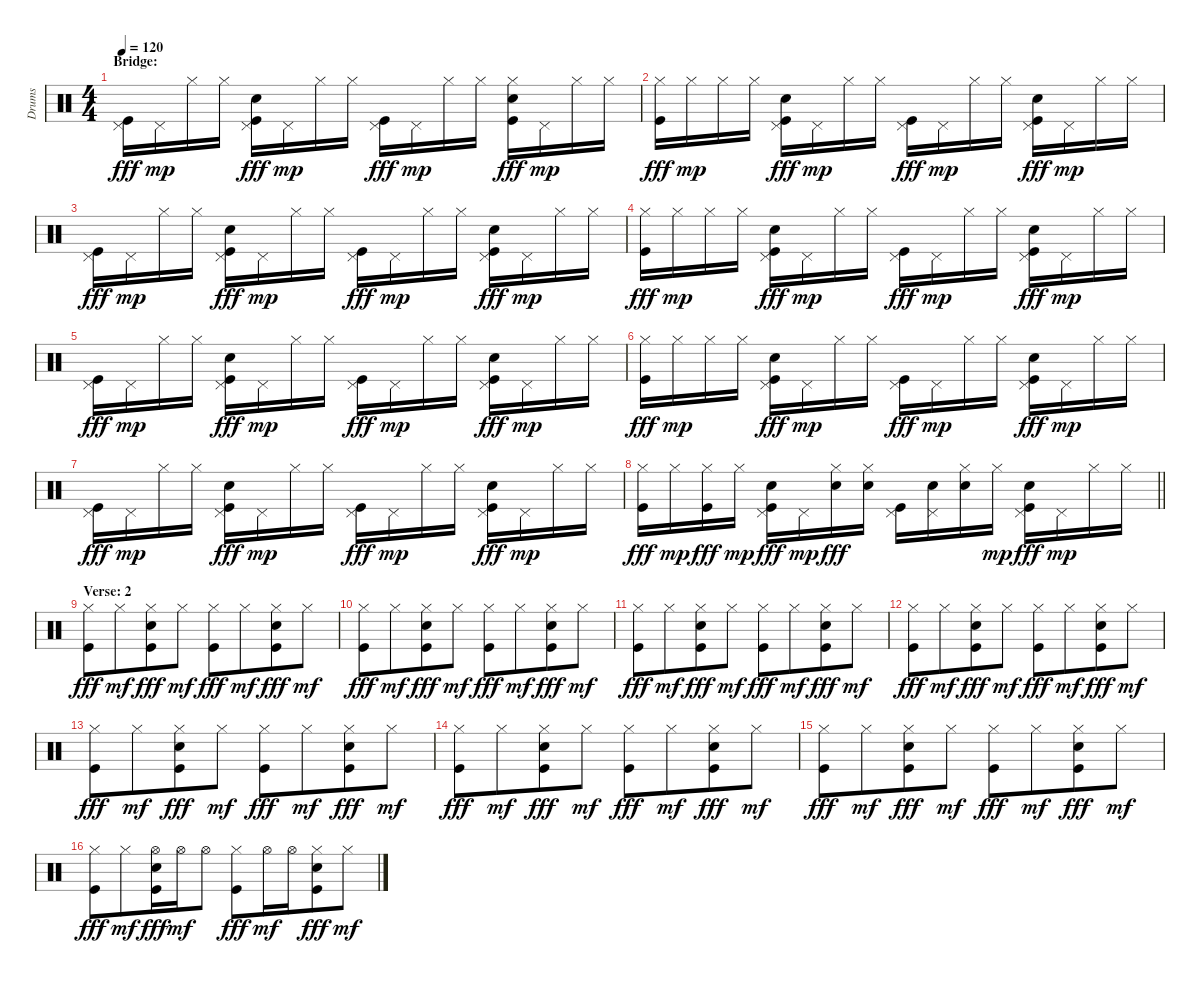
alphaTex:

\track ("Drums" "Drums") {instrument percussion}
\staff {score}
\articulation defaults
\ts (4 4)
\section ("" "Bridge:")
\tempo 120
\clef neutral
\ks c
("Pedal Hi-Hat (hit)" "Kick (hit)").16{dy fff} "Pedal Hi-Hat (hit)".16{dy mp} "Hi-Hat (closed)".16 "Hi-Hat (closed)".16 ("Pedal Hi-Hat (hit)" "Snare (hit) 2" "Kick (hit)").16{dy fff} "Pedal Hi-Hat (hit)".16{dy mp} "Hi-Hat (closed)".16 "Hi-Hat (closed)".16 ("Pedal Hi-Hat (hit)" "Kick (hit)").16{dy fff} "Pedal Hi-Hat (hit)".16{dy mp} "Hi-Hat (closed)".16 "Hi-Hat (closed)".16 ("Hi-Hat (closed)" "Snare (hit) 2" "Kick (hit)").16{dy fff} "Pedal Hi-Hat (hit)".16{dy mp} "Hi-Hat (closed)".16 "Hi-Hat (closed)".16 |
("Hi-Hat (closed)" "Kick (hit)").16{dy fff} "Hi-Hat (closed)".16{dy mp} "Hi-Hat (closed)".16 "Hi-Hat (closed)".16 ("Pedal Hi-Hat (hit)" "Snare (hit) 2" "Kick (hit)").16{dy fff} "Pedal Hi-Hat (hit)".16{dy mp} "Hi-Hat (closed)".16 "Hi-Hat (closed)".16 ("Pedal Hi-Hat (hit)" "Kick (hit)").16{dy fff} "Pedal Hi-Hat (hit)".16{dy mp} "Hi-Hat (closed)".16 "Hi-Hat (closed)".16 ("Pedal Hi-Hat (hit)" "Snare (hit) 2" "Kick (hit)").16{dy fff} "Pedal Hi-Hat (hit)".16{dy mp} "Hi-Hat (closed)".16 "Hi-Hat (closed)".16 |
("Pedal Hi-Hat (hit)" "Kick (hit)").16{dy fff} "Pedal Hi-Hat (hit)".16{dy mp} "Hi-Hat (closed)".16 "Hi-Hat (closed)".16 ("Pedal Hi-Hat (hit)" "Snare (hit) 2" "Kick (hit)").16{dy fff} "Pedal Hi-Hat (hit)".16{dy mp} "Hi-Hat (closed)".16 "Hi-Hat (closed)".16 ("Pedal Hi-Hat (hit)" "Kick (hit)").16{dy fff} "Pedal Hi-Hat (hit)".16{dy mp} "Hi-Hat (closed)".16 "Hi-Hat (closed)".16 ("Pedal Hi-Hat (hit)" "Snare (hit) 2" "Kick (hit)").16{dy fff} "Pedal Hi-Hat (hit)".16{dy mp} "Hi-Hat (closed)".16 "Hi-Hat (closed)".16 |
("Hi-Hat (closed)" "Kick (hit)").16{dy fff} "Hi-Hat (closed)".16{dy mp} "Hi-Hat (closed)".16 "Hi-Hat (closed)".16 ("Pedal Hi-Hat (hit)" "Snare (hit) 2" "Kick (hit)").16{dy fff} "Pedal Hi-Hat (hit)".16{dy mp} "Hi-Hat (closed)".16 "Hi-Hat (closed)".16 ("Pedal Hi-Hat (hit)" "Kick (hit)").16{dy fff} "Pedal Hi-Hat (hit)".16{dy mp} "Hi-Hat (closed)".16 "Hi-Hat (closed)".16 ("Pedal Hi-Hat (hit)" "Snare (hit) 2" "Kick (hit)").16{dy fff} "Pedal Hi-Hat (hit)".16{dy mp} "Hi-Hat (closed)".16 "Hi-Hat (closed)".16 |
("Pedal Hi-Hat (hit)" "Kick (hit)").16{dy fff} "Pedal Hi-Hat (hit)".16{dy mp} "Hi-Hat (closed)".16 "Hi-Hat (closed)".16 ("Pedal Hi-Hat (hit)" "Snare (hit) 2" "Kick (hit)").16{dy fff} "Pedal Hi-Hat (hit)".16{dy mp} "Hi-Hat (closed)".16 "Hi-Hat (closed)".16 ("Pedal Hi-Hat (hit)" "Kick (hit)").16{dy fff} "Pedal Hi-Hat (hit)".16{dy mp} "Hi-Hat (closed)".16 "Hi-Hat (closed)".16 ("Pedal Hi-Hat (hit)" "Snare (hit) 2" "Kick (hit)").16{dy fff} "Pedal Hi-Hat (hit)".16{dy mp} "Hi-Hat (closed)".16 "Hi-Hat (closed)".16 |
("Hi-Hat (closed)" "Kick (hit)").16{dy fff} "Hi-Hat (closed)".16{dy mp} "Hi-Hat (closed)".16 "Hi-Hat (closed)".16 ("Pedal Hi-Hat (hit)" "Snare (hit) 2" "Kick (hit)").16{dy fff} "Pedal Hi-Hat (hit)".16{dy mp} "Hi-Hat (closed)".16 "Hi-Hat (closed)".16 ("Pedal Hi-Hat (hit)" "Kick (hit)").16{dy fff} "Pedal Hi-Hat (hit)".16{dy mp} "Hi-Hat (closed)".16 "Hi-Hat (closed)".16 ("Pedal Hi-Hat (hit)" "Snare (hit) 2" "Kick (hit)").16{dy fff} "Pedal Hi-Hat (hit)".16{dy mp} "Hi-Hat (closed)".16 "Hi-Hat (closed)".16 |
("Pedal Hi-Hat (hit)" "Kick (hit)").16{dy fff} "Pedal Hi-Hat (hit)".16{dy mp} "Hi-Hat (closed)".16 "Hi-Hat (closed)".16 ("Pedal Hi-Hat (hit)" "Snare (hit) 2" "Kick (hit)").16{dy fff} "Pedal Hi-Hat (hit)".16{dy mp} "Hi-Hat (closed)".16 "Hi-Hat (closed)".16 ("Pedal Hi-Hat (hit)" "Kick (hit)").16{dy fff} "Pedal Hi-Hat (hit)".16{dy mp} "Hi-Hat (closed)".16 "Hi-Hat (closed)".16 ("Pedal Hi-Hat (hit)" "Snare (hit) 2" "Kick (hit)").16{dy fff} "Pedal Hi-Hat (hit)".16{dy mp} "Hi-Hat (closed)".16 "Hi-Hat (closed)".16 |
\barLineRight lightlight
("Hi-Hat (closed)" "Kick (hit)").16{dy fff} "Hi-Hat (closed)".16{dy mp} ("Hi-Hat (closed)" "Kick (hit)").16{dy fff} "Hi-Hat (closed)".16{dy mp} ("Pedal Hi-Hat (hit)" "Snare (hit) 2" "Kick (hit)").16{dy fff} "Pedal Hi-Hat (hit)".16{dy mp} ("Hi-Hat (closed)" "Snare (hit) 2").16{dy fff} ("Hi-Hat (closed)" "Snare (hit) 2").16 ("Pedal Hi-Hat (hit)" "Kick (hit)").16 ("Pedal Hi-Hat (hit)" "Snare (hit) 2").16 ("Hi-Hat (closed)" "Snare (hit) 2").16 "Hi-Hat (closed)".16{dy mp} ("Pedal Hi-Hat (hit)" "Snare (hit) 2" "Kick (hit)").16{dy fff} "Pedal Hi-Hat (hit)".16{dy mp} "Hi-Hat (closed)".16 "Hi-Hat (closed)".16 |
\section ("" "Verse: 2")
("Hi-Hat (closed)" "Kick (hit)").8{dy fff} "Hi-Hat (closed)".8{dy mf beam merge} ("Hi-Hat (closed)" "Snare (hit) 2" "Kick (hit)").8{dy fff} "Hi-Hat (closed)".8{dy mf} ("Hi-Hat (closed)" "Kick (hit)").8{dy fff} "Hi-Hat (closed)".8{dy mf beam merge} ("Hi-Hat (closed)" "Snare (hit) 2" "Kick (hit)").8{dy fff} "Hi-Hat (closed)".8{dy mf} |
("Hi-Hat (closed)" "Kick (hit)").8{dy fff} "Hi-Hat (closed)".8{dy mf beam merge} ("Hi-Hat (closed)" "Snare (hit) 2" "Kick (hit)").8{dy fff} "Hi-Hat (closed)".8{dy mf} ("Hi-Hat (closed)" "Kick (hit)").8{dy fff} "Hi-Hat (closed)".8{dy mf beam merge} ("Hi-Hat (closed)" "Snare (hit) 2" "Kick (hit)").8{dy fff} "Hi-Hat (closed)".8{dy mf} |
("Hi-Hat (closed)" "Kick (hit)").8{dy fff} "Hi-Hat (closed)".8{dy mf beam merge} ("Hi-Hat (closed)" "Snare (hit) 2" "Kick (hit)").8{dy fff} "Hi-Hat (closed)".8{dy mf} ("Hi-Hat (closed)" "Kick (hit)").8{dy fff} "Hi-Hat (closed)".8{dy mf beam merge} ("Hi-Hat (closed)" "Snare (hit) 2" "Kick (hit)").8{dy fff} "Hi-Hat (closed)".8{dy mf} |
("Hi-Hat (closed)" "Kick (hit)").8{dy fff} "Hi-Hat (closed)".8{dy mf beam merge} ("Hi-Hat (closed)" "Snare (hit) 2" "Kick (hit)").8{dy fff} "Hi-Hat (closed)".8{dy mf} ("Hi-Hat (closed)" "Kick (hit)").8{dy fff} "Hi-Hat (closed)".8{dy mf beam merge} ("Hi-Hat (closed)" "Snare (hit) 2" "Kick (hit)").8{dy fff} "Hi-Hat (closed)".8{dy mf} |
("Hi-Hat (closed)" "Kick (hit)").8{dy fff} "Hi-Hat (closed)".8{dy mf beam merge} ("Hi-Hat (closed)" "Snare (hit) 2" "Kick (hit)").8{dy fff} "Hi-Hat (closed)".8{dy mf} ("Hi-Hat (closed)" "Kick (hit)").8{dy fff} "Hi-Hat (closed)".8{dy mf beam merge} ("Hi-Hat (closed)" "Snare (hit) 2" "Kick (hit)").8{dy fff} "Hi-Hat (closed)".8{dy mf} |
("Hi-Hat (closed)" "Kick (hit)").8{dy fff} "Hi-Hat (closed)".8{dy mf beam merge} ("Hi-Hat (closed)" "Snare (hit) 2" "Kick (hit)").8{dy fff} "Hi-Hat (closed)".8{dy mf} ("Hi-Hat (closed)" "Kick (hit)").8{dy fff} "Hi-Hat (closed)".8{dy mf beam merge} ("Hi-Hat (closed)" "Snare (hit) 2" "Kick (hit)").8{dy fff} "Hi-Hat (closed)".8{dy mf} |
("Hi-Hat (closed)" "Kick (hit)").8{dy fff} "Hi-Hat (closed)".8{dy mf beam merge} ("Hi-Hat (closed)" "Snare (hit) 2" "Kick (hit)").8{dy fff} "Hi-Hat (closed)".8{dy mf} ("Hi-Hat (closed)" "Kick (hit)").8{dy fff} "Hi-Hat (closed)".8{dy mf beam merge} ("Hi-Hat (closed)" "Snare (hit) 2" "Kick (hit)").8{dy fff} "Hi-Hat (closed)".8{dy mf} |
("Hi-Hat (closed)" "Kick (hit)").8{dy fff} "Hi-Hat (closed)".8{dy mf beam merge} ("Hi-Hat (open)" "Snare (hit) 2" "Kick (hit)").16{dy fff} "Hi-Hat (open)".16{dy mf} "Hi-Hat (open)".8 ("Hi-Hat (closed)" "Kick (hit)").8{dy fff} "Hi-Hat (open)".16{dy mf} "Hi-Hat (open)".16{beam merge} ("Hi-Hat (closed)" "Snare (hit) 2" "Kick (hit)").8{dy fff} "Hi-Hat (closed)".8{dy mf}
